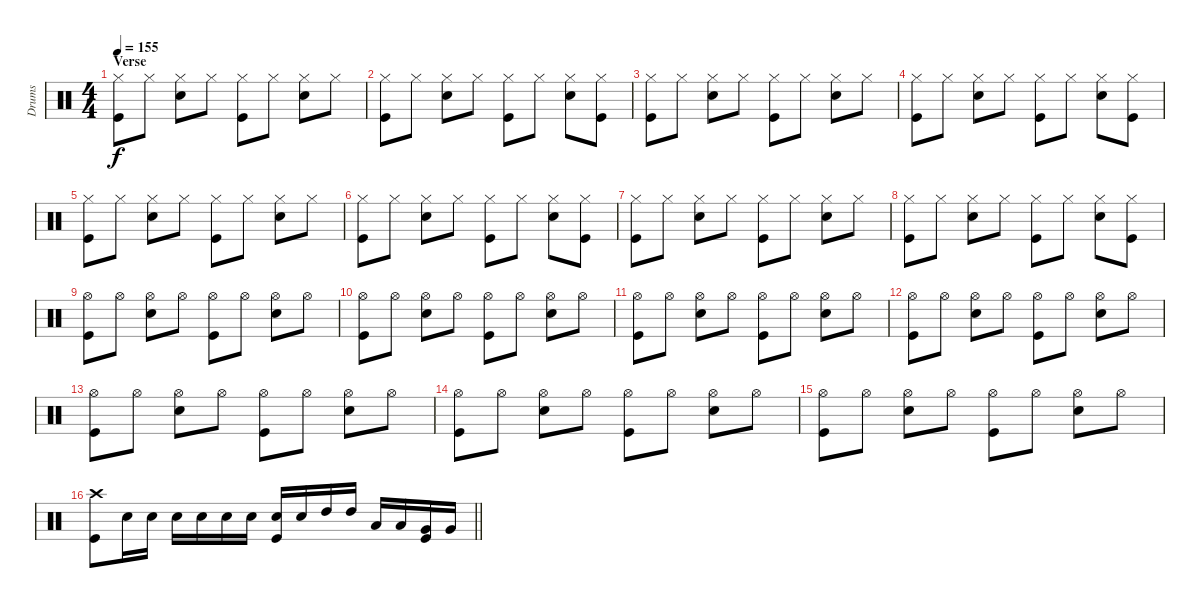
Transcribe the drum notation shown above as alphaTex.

\track ("Drums" "Drums") {instrument percussion}
\staff {score}
\articulation defaults
\ts (4 4)
\section ("" "Verse")
\tempo 155
\clef neutral
\ks c
("Hi-Hat (closed)" "Kick (hit)").8{dy f} "Hi-Hat (closed)".8 ("Hi-Hat (closed)" "Snare (hit) 2").8 "Hi-Hat (closed)".8 ("Hi-Hat (closed)" "Kick (hit)").8 "Hi-Hat (closed)".8 ("Hi-Hat (closed)" "Snare (hit) 2").8 "Hi-Hat (closed)".8 |
("Hi-Hat (closed)" "Kick (hit)").8 "Hi-Hat (closed)".8 ("Hi-Hat (closed)" "Snare (hit) 2").8 "Hi-Hat (closed)".8 ("Hi-Hat (closed)" "Kick (hit)").8 "Hi-Hat (closed)".8 ("Hi-Hat (closed)" "Snare (hit) 2").8 ("Hi-Hat (closed)" "Kick (hit)").8 |
("Hi-Hat (closed)" "Kick (hit)").8 "Hi-Hat (closed)".8 ("Hi-Hat (closed)" "Snare (hit) 2").8 "Hi-Hat (closed)".8 ("Hi-Hat (closed)" "Kick (hit)").8 "Hi-Hat (closed)".8 ("Hi-Hat (closed)" "Snare (hit) 2").8 "Hi-Hat (closed)".8 |
("Hi-Hat (closed)" "Kick (hit)").8 "Hi-Hat (closed)".8 ("Hi-Hat (closed)" "Snare (hit) 2").8 "Hi-Hat (closed)".8 ("Hi-Hat (closed)" "Kick (hit)").8 "Hi-Hat (closed)".8 ("Hi-Hat (closed)" "Snare (hit) 2").8 ("Hi-Hat (closed)" "Kick (hit)").8 |
("Hi-Hat (closed)" "Kick (hit)").8 "Hi-Hat (closed)".8 ("Hi-Hat (closed)" "Snare (hit) 2").8 "Hi-Hat (closed)".8 ("Hi-Hat (closed)" "Kick (hit)").8 "Hi-Hat (closed)".8 ("Hi-Hat (closed)" "Snare (hit) 2").8 "Hi-Hat (closed)".8 |
("Hi-Hat (closed)" "Kick (hit)").8 "Hi-Hat (closed)".8 ("Hi-Hat (closed)" "Snare (hit) 2").8 "Hi-Hat (closed)".8 ("Hi-Hat (closed)" "Kick (hit)").8 "Hi-Hat (closed)".8 ("Hi-Hat (closed)" "Snare (hit) 2").8 ("Hi-Hat (closed)" "Kick (hit)").8 |
("Hi-Hat (closed)" "Kick (hit)").8 "Hi-Hat (closed)".8 ("Hi-Hat (closed)" "Snare (hit) 2").8 "Hi-Hat (closed)".8 ("Hi-Hat (closed)" "Kick (hit)").8 "Hi-Hat (closed)".8 ("Hi-Hat (closed)" "Snare (hit) 2").8 "Hi-Hat (closed)".8 |
("Hi-Hat (closed)" "Kick (hit)").8 "Hi-Hat (closed)".8 ("Hi-Hat (closed)" "Snare (hit) 2").8 "Hi-Hat (closed)".8 ("Hi-Hat (closed)" "Kick (hit)").8 "Hi-Hat (closed)".8 ("Hi-Hat (closed)" "Snare (hit) 2").8 ("Hi-Hat (closed)" "Kick (hit)").8 |
("Hi-Hat (open)" "Kick (hit)").8 "Hi-Hat (open)".8 ("Hi-Hat (open)" "Snare (hit) 2").8 "Hi-Hat (open)".8 ("Hi-Hat (open)" "Kick (hit)").8 "Hi-Hat (open)".8 ("Hi-Hat (open)" "Snare (hit) 2").8 "Hi-Hat (open)".8 |
("Hi-Hat (open)" "Kick (hit)").8 "Hi-Hat (open)".8 ("Hi-Hat (open)" "Snare (hit) 2").8 "Hi-Hat (open)".8 ("Hi-Hat (open)" "Kick (hit)").8 "Hi-Hat (open)".8 ("Hi-Hat (open)" "Snare (hit) 2").8 "Hi-Hat (open)".8 |
("Hi-Hat (open)" "Kick (hit)").8 "Hi-Hat (open)".8 ("Hi-Hat (open)" "Snare (hit) 2").8 "Hi-Hat (open)".8 ("Hi-Hat (open)" "Kick (hit)").8 "Hi-Hat (open)".8 ("Hi-Hat (open)" "Snare (hit) 2").8 "Hi-Hat (open)".8 |
("Hi-Hat (open)" "Kick (hit)").8 "Hi-Hat (open)".8 ("Hi-Hat (open)" "Snare (hit) 2").8 "Hi-Hat (open)".8 ("Hi-Hat (open)" "Kick (hit)").8 "Hi-Hat (open)".8 ("Hi-Hat (open)" "Snare (hit) 2").8 "Hi-Hat (open)".8 |
("Hi-Hat (open)" "Kick (hit)").8 "Hi-Hat (open)".8 ("Hi-Hat (open)" "Snare (hit) 2").8 "Hi-Hat (open)".8 ("Hi-Hat (open)" "Kick (hit)").8 "Hi-Hat (open)".8 ("Hi-Hat (open)" "Snare (hit) 2").8 "Hi-Hat (open)".8 |
("Hi-Hat (open)" "Kick (hit)").8 "Hi-Hat (open)".8 ("Hi-Hat (open)" "Snare (hit) 2").8 "Hi-Hat (open)".8 ("Hi-Hat (open)" "Kick (hit)").8 "Hi-Hat (open)".8 ("Hi-Hat (open)" "Snare (hit) 2").8 "Hi-Hat (open)".8 |
("Hi-Hat (open)" "Kick (hit)").8 "Hi-Hat (open)".8 ("Hi-Hat (open)" "Snare (hit) 2").8 "Hi-Hat (open)".8 ("Hi-Hat (open)" "Kick (hit)").8 "Hi-Hat (open)".8 ("Hi-Hat (open)" "Snare (hit) 2").8 "Hi-Hat (open)".8 |
\barLineRight lightlight
("Crash high (hit)" "Kick (hit)").8 "Snare (hit) 2".16 "Snare (hit) 2".16 "Snare (hit) 2".16 "Snare (hit) 2".16 "Snare (hit) 2".16 "Snare (hit) 2".16 ("Snare (hit) 2" "Kick (hit)").16 "Snare (hit) 2".16 "High Tom (hit)".16 "High Tom (hit)".16 "Low Tom (hit)".16 "Low Tom (hit)".16 ("Very Low Tom (hit)" "Kick (hit)").16 "Very Low Tom (hit)".16
